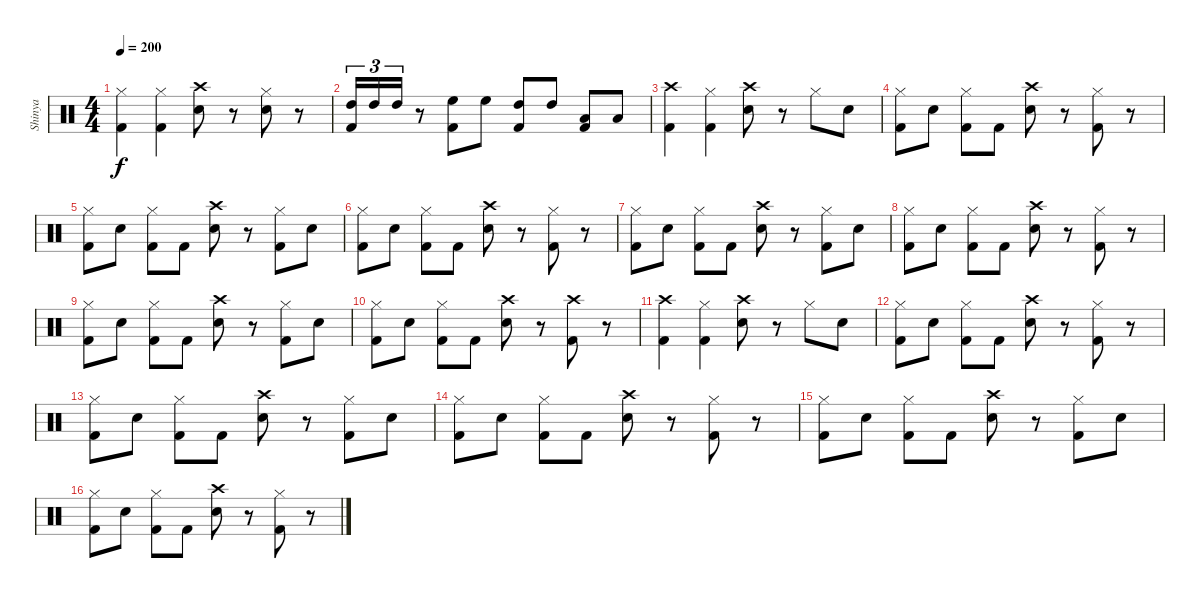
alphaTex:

\track ("Shinya" "Shinya") {instrument percussion}
\staff {score}
\articulation defaults
\ts (4 4)
\tempo 200
\clef neutral
\ks c
("Hi-Hat (closed)" "Kick (hit) 2").4{dy f} ("Hi-Hat (closed)" "Kick (hit) 2").4 ("Crash high (hit)" "Electric Snare (hit)").8 r.8 ("Hi-Hat (closed)" "Electric Snare (hit)").8 r.8 |
("High Tom (hit)" "Kick (hit) 2").16{tu (3 2)} "High Tom (hit)".16{tu (3 2)} "High Tom (hit)".16{tu (3 2)} r.8 ("High Floor Tom (hit)" "Kick (hit) 2").8 "High Floor Tom (hit)".8 ("High Tom (hit)" "Kick (hit) 2").8 "High Tom (hit)".8 ("Low Tom (hit)" "Kick (hit) 2").8 "Low Tom (hit)".8 |
("Crash high (hit)" "Kick (hit) 2").4 ("Hi-Hat (closed)" "Kick (hit) 2").4 ("Crash high (hit)" "Electric Snare (hit)").8 r.8 "Hi-Hat (closed)".8 "Electric Snare (hit)".8 |
("Hi-Hat (closed)" "Kick (hit) 2").8 "Electric Snare (hit)".8 ("Hi-Hat (closed)" "Kick (hit) 2").8 "Kick (hit) 2".8 ("Crash high (hit)" "Electric Snare (hit)").8 r.8 ("Hi-Hat (closed)" "Kick (hit) 2").8 r.8 |
("Hi-Hat (closed)" "Kick (hit) 2").8 "Electric Snare (hit)".8 ("Hi-Hat (closed)" "Kick (hit) 2").8 "Kick (hit) 2".8 ("Crash high (hit)" "Electric Snare (hit)").8 r.8 ("Hi-Hat (closed)" "Kick (hit) 2").8 "Electric Snare (hit)".8 |
("Hi-Hat (closed)" "Kick (hit) 2").8 "Electric Snare (hit)".8 ("Hi-Hat (closed)" "Kick (hit) 2").8 "Kick (hit) 2".8 ("Crash high (hit)" "Electric Snare (hit)").8 r.8 ("Hi-Hat (closed)" "Kick (hit) 2").8 r.8 |
("Hi-Hat (closed)" "Kick (hit) 2").8 "Electric Snare (hit)".8 ("Hi-Hat (closed)" "Kick (hit) 2").8 "Kick (hit) 2".8 ("Crash high (hit)" "Electric Snare (hit)").8 r.8 ("Hi-Hat (closed)" "Kick (hit) 2").8 "Electric Snare (hit)".8 |
("Hi-Hat (closed)" "Kick (hit) 2").8 "Electric Snare (hit)".8 ("Hi-Hat (closed)" "Kick (hit) 2").8 "Kick (hit) 2".8 ("Crash high (hit)" "Electric Snare (hit)").8 r.8 ("Hi-Hat (closed)" "Kick (hit) 2").8 r.8 |
("Hi-Hat (closed)" "Kick (hit) 2").8 "Electric Snare (hit)".8 ("Hi-Hat (closed)" "Kick (hit) 2").8 "Kick (hit) 2".8 ("Crash high (hit)" "Electric Snare (hit)").8 r.8 ("Hi-Hat (closed)" "Kick (hit) 2").8 "Electric Snare (hit)".8 |
("Hi-Hat (closed)" "Kick (hit) 2").8 "Electric Snare (hit)".8 ("Hi-Hat (closed)" "Kick (hit) 2").8 "Kick (hit) 2".8 ("Crash high (hit)" "Electric Snare (hit)").8 r.8 ("Crash high (hit)" "Kick (hit) 2").8 r.8 |
("Crash high (hit)" "Kick (hit) 2").4 ("Hi-Hat (closed)" "Kick (hit) 2").4 ("Crash high (hit)" "Electric Snare (hit)").8 r.8 "Hi-Hat (closed)".8 "Electric Snare (hit)".8 |
("Hi-Hat (closed)" "Kick (hit) 2").8 "Electric Snare (hit)".8 ("Hi-Hat (closed)" "Kick (hit) 2").8 "Kick (hit) 2".8 ("Crash high (hit)" "Electric Snare (hit)").8 r.8 ("Hi-Hat (closed)" "Kick (hit) 2").8 r.8 |
("Hi-Hat (closed)" "Kick (hit) 2").8 "Electric Snare (hit)".8 ("Hi-Hat (closed)" "Kick (hit) 2").8 "Kick (hit) 2".8 ("Crash high (hit)" "Electric Snare (hit)").8 r.8 ("Hi-Hat (closed)" "Kick (hit) 2").8 "Electric Snare (hit)".8 |
("Hi-Hat (closed)" "Kick (hit) 2").8 "Electric Snare (hit)".8 ("Hi-Hat (closed)" "Kick (hit) 2").8 "Kick (hit) 2".8 ("Crash high (hit)" "Electric Snare (hit)").8 r.8 ("Hi-Hat (closed)" "Kick (hit) 2").8 r.8 |
("Hi-Hat (closed)" "Kick (hit) 2").8 "Electric Snare (hit)".8 ("Hi-Hat (closed)" "Kick (hit) 2").8 "Kick (hit) 2".8 ("Crash high (hit)" "Electric Snare (hit)").8 r.8 ("Hi-Hat (closed)" "Kick (hit) 2").8 "Electric Snare (hit)".8 |
("Hi-Hat (closed)" "Kick (hit) 2").8 "Electric Snare (hit)".8 ("Hi-Hat (closed)" "Kick (hit) 2").8 "Kick (hit) 2".8 ("Crash high (hit)" "Electric Snare (hit)").8 r.8 ("Hi-Hat (closed)" "Kick (hit) 2").8 r.8
